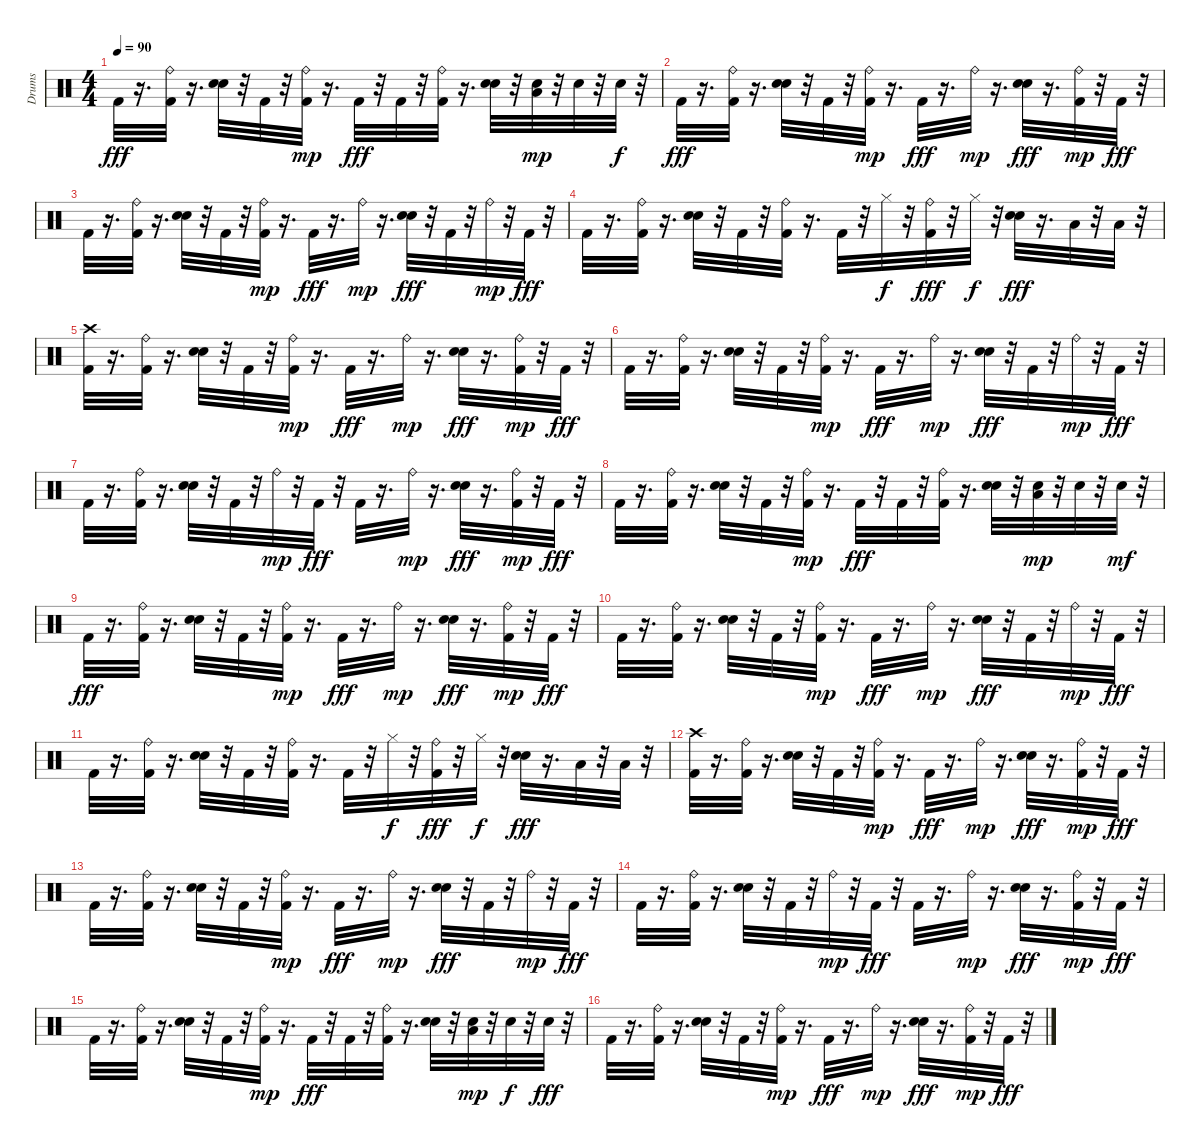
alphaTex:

\track ("Drums" "Drums") {instrument percussion}
\staff {score}
\articulation defaults
\ts (4 4)
\tempo 90
\clef neutral
\ks c "Kick (hit) 2".32{dy fff}
r.16{d} ("Ride (bell)" "Kick (hit) 2").32 r.16{d} ("Hand Clap (hit)" "Electric Snare (hit)").32 r.32 "Kick (hit) 2".32 r.32 ("Ride (bell)" "Kick (hit) 2").32{dy mp} r.16{d} "Kick (hit) 2".32{dy fff} r.32 "Kick (hit) 2".32 r.32 ("Ride (bell)" "Kick (hit) 2").32 r.16{d} ("Hand Clap (hit)" "Electric Snare (hit)").32 r.32 ("Low Tom (hit)" "Electric Snare (hit)").32{dy mp} r.32 "Electric Snare (hit)".32 r.32 "Electric Snare (hit)".32{dy f} r.32 |
"Kick (hit) 2".32{dy fff} r.16{d} ("Ride (bell)" "Kick (hit) 2").32 r.16{d} ("Hand Clap (hit)" "Electric Snare (hit)").32 r.32 "Kick (hit) 2".32 r.32 ("Ride (bell)" "Kick (hit) 2").32{dy mp} r.16{d} "Kick (hit) 2".32{dy fff} r.16{d} "Ride (bell)".32{dy mp} r.16{d} ("Hand Clap (hit)" "Electric Snare (hit)").32{dy fff} r.16{d} ("Ride (bell)" "Kick (hit) 2").32{dy mp} r.32 "Kick (hit) 2".32{dy fff} r.32 |
"Kick (hit) 2".32 r.16{d} ("Ride (bell)" "Kick (hit) 2").32 r.16{d} ("Hand Clap (hit)" "Electric Snare (hit)").32 r.32 "Kick (hit) 2".32 r.32 ("Ride (bell)" "Kick (hit) 2").32{dy mp} r.16{d} "Kick (hit) 2".32{dy fff} r.16{d} "Ride (bell)".32{dy mp} r.16{d} ("Hand Clap (hit)" "Electric Snare (hit)").32{dy fff} r.32 "Kick (hit) 2".32 r.32 "Ride (bell)".32{dy mp} r.32 "Kick (hit) 2".32{dy fff} r.32 |
"Kick (hit) 2".32 r.16{d} ("Ride (bell)" "Kick (hit) 2").32 r.16{d} ("Hand Clap (hit)" "Electric Snare (hit)").32 r.32 "Kick (hit) 2".32 r.32 ("Ride (bell)" "Kick (hit) 2").32 r.16{d} "Kick (hit) 2".32 r.32 "Hi-Hat (closed)".32{dy f} r.32 ("Ride (bell)" "Kick (hit) 2").32{dy fff} r.32 "Hi-Hat (closed)".32{dy f} r.32 ("Hand Clap (hit)" "Electric Snare (hit)").32{dy fff} r.16{d} "Low Tom (hit)".32 r.32 "Low Floor Tom (hit)".32 r.32 |
("Crash high (hit)" "Kick (hit) 2").32 r.16{d} ("Ride (bell)" "Kick (hit) 2").32 r.16{d} ("Hand Clap (hit)" "Electric Snare (hit)").32 r.32 "Kick (hit) 2".32 r.32 ("Ride (bell)" "Kick (hit) 2").32{dy mp} r.16{d} "Kick (hit) 2".32{dy fff} r.16{d} "Ride (bell)".32{dy mp} r.16{d} ("Hand Clap (hit)" "Electric Snare (hit)").32{dy fff} r.16{d} ("Ride (bell)" "Kick (hit) 2").32{dy mp} r.32 "Kick (hit) 2".32{dy fff} r.32 |
"Kick (hit) 2".32 r.16{d} ("Ride (bell)" "Kick (hit) 2").32 r.16{d} ("Hand Clap (hit)" "Electric Snare (hit)").32 r.32 "Kick (hit) 2".32 r.32 ("Ride (bell)" "Kick (hit) 2").32{dy mp} r.16{d} "Kick (hit) 2".32{dy fff} r.16{d} "Ride (bell)".32{dy mp} r.16{d} ("Hand Clap (hit)" "Electric Snare (hit)").32{dy fff} r.32 "Kick (hit) 2".32 r.32 "Ride (bell)".32{dy mp} r.32 "Kick (hit) 2".32{dy fff} r.32 |
"Kick (hit) 2".32 r.16{d} ("Ride (bell)" "Kick (hit) 2").32 r.16{d} ("Hand Clap (hit)" "Electric Snare (hit)").32 r.32 "Kick (hit) 2".32 r.32 "Ride (bell)".32{dy mp} r.32 "Kick (hit) 2".32{dy fff} r.32 "Kick (hit) 2".32 r.16{d} "Ride (bell)".32{dy mp} r.16{d} ("Hand Clap (hit)" "Electric Snare (hit)").32{dy fff} r.16{d} ("Ride (bell)" "Kick (hit) 2").32{dy mp} r.32 "Kick (hit) 2".32{dy fff} r.32 |
"Kick (hit) 2".32 r.16{d} ("Ride (bell)" "Kick (hit) 2").32 r.16{d} ("Hand Clap (hit)" "Electric Snare (hit)").32 r.32 "Kick (hit) 2".32 r.32 ("Ride (bell)" "Kick (hit) 2").32{dy mp} r.16{d} "Kick (hit) 2".32{dy fff} r.32 "Kick (hit) 2".32 r.32 ("Ride (bell)" "Kick (hit) 2").32 r.16{d} ("Hand Clap (hit)" "Electric Snare (hit)").32 r.32 ("Low Tom (hit)" "Electric Snare (hit)").32{dy mp} r.32 "Electric Snare (hit)".32 r.32 "Electric Snare (hit)".32{dy mf} r.32 |
"Kick (hit) 2".32{dy fff} r.16{d} ("Ride (bell)" "Kick (hit) 2").32 r.16{d} ("Hand Clap (hit)" "Electric Snare (hit)").32 r.32 "Kick (hit) 2".32 r.32 ("Ride (bell)" "Kick (hit) 2").32{dy mp} r.16{d} "Kick (hit) 2".32{dy fff} r.16{d} "Ride (bell)".32{dy mp} r.16{d} ("Hand Clap (hit)" "Electric Snare (hit)").32{dy fff} r.16{d} ("Ride (bell)" "Kick (hit) 2").32{dy mp} r.32 "Kick (hit) 2".32{dy fff} r.32 |
"Kick (hit) 2".32 r.16{d} ("Ride (bell)" "Kick (hit) 2").32 r.16{d} ("Hand Clap (hit)" "Electric Snare (hit)").32 r.32 "Kick (hit) 2".32 r.32 ("Ride (bell)" "Kick (hit) 2").32{dy mp} r.16{d} "Kick (hit) 2".32{dy fff} r.16{d} "Ride (bell)".32{dy mp} r.16{d} ("Hand Clap (hit)" "Electric Snare (hit)").32{dy fff} r.32 "Kick (hit) 2".32 r.32 "Ride (bell)".32{dy mp} r.32 "Kick (hit) 2".32{dy fff} r.32 |
"Kick (hit) 2".32 r.16{d} ("Ride (bell)" "Kick (hit) 2").32 r.16{d} ("Hand Clap (hit)" "Electric Snare (hit)").32 r.32 "Kick (hit) 2".32 r.32 ("Ride (bell)" "Kick (hit) 2").32 r.16{d} "Kick (hit) 2".32 r.32 "Hi-Hat (closed)".32{dy f} r.32 ("Ride (bell)" "Kick (hit) 2").32{dy fff} r.32 "Hi-Hat (closed)".32{dy f} r.32 ("Hand Clap (hit)" "Electric Snare (hit)").32{dy fff} r.16{d} "Low Tom (hit)".32 r.32 "Low Floor Tom (hit)".32 r.32 |
("Crash high (hit)" "Kick (hit) 2").32 r.16{d} ("Ride (bell)" "Kick (hit) 2").32 r.16{d} ("Hand Clap (hit)" "Electric Snare (hit)").32 r.32 "Kick (hit) 2".32 r.32 ("Ride (bell)" "Kick (hit) 2").32{dy mp} r.16{d} "Kick (hit) 2".32{dy fff} r.16{d} "Ride (bell)".32{dy mp} r.16{d} ("Hand Clap (hit)" "Electric Snare (hit)").32{dy fff} r.16{d} ("Ride (bell)" "Kick (hit) 2").32{dy mp} r.32 "Kick (hit) 2".32{dy fff} r.32 |
"Kick (hit) 2".32 r.16{d} ("Ride (bell)" "Kick (hit) 2").32 r.16{d} ("Hand Clap (hit)" "Electric Snare (hit)").32 r.32 "Kick (hit) 2".32 r.32 ("Ride (bell)" "Kick (hit) 2").32{dy mp} r.16{d} "Kick (hit) 2".32{dy fff} r.16{d} "Ride (bell)".32{dy mp} r.16{d} ("Hand Clap (hit)" "Electric Snare (hit)").32{dy fff} r.32 "Kick (hit) 2".32 r.32 "Ride (bell)".32{dy mp} r.32 "Kick (hit) 2".32{dy fff} r.32 |
"Kick (hit) 2".32 r.16{d} ("Ride (bell)" "Kick (hit) 2").32 r.16{d} ("Hand Clap (hit)" "Electric Snare (hit)").32 r.32 "Kick (hit) 2".32 r.32 "Ride (bell)".32{dy mp} r.32 "Kick (hit) 2".32{dy fff} r.32 "Kick (hit) 2".32 r.16{d} "Ride (bell)".32{dy mp} r.16{d} ("Hand Clap (hit)" "Electric Snare (hit)").32{dy fff} r.16{d} ("Ride (bell)" "Kick (hit) 2").32{dy mp} r.32 "Kick (hit) 2".32{dy fff} r.32 |
"Kick (hit) 2".32 r.16{d} ("Ride (bell)" "Kick (hit) 2").32 r.16{d} ("Hand Clap (hit)" "Electric Snare (hit)").32 r.32 "Kick (hit) 2".32 r.32 ("Ride (bell)" "Kick (hit) 2").32{dy mp} r.16{d} "Kick (hit) 2".32{dy fff} r.32 "Kick (hit) 2".32 r.32 ("Ride (bell)" "Kick (hit) 2").32 r.16{d} ("Hand Clap (hit)" "Electric Snare (hit)").32 r.32 ("Low Tom (hit)" "Electric Snare (hit)").32{dy mp} r.32 "Electric Snare (hit)".32{dy f} r.32 "Electric Snare (hit)".32{dy fff} r.32 |
"Kick (hit) 2".32 r.16{d} ("Ride (bell)" "Kick (hit) 2").32 r.16{d} ("Hand Clap (hit)" "Electric Snare (hit)").32 r.32 "Kick (hit) 2".32 r.32 ("Ride (bell)" "Kick (hit) 2").32{dy mp} r.16{d} "Kick (hit) 2".32{dy fff} r.16{d} "Ride (bell)".32{dy mp} r.16{d} ("Hand Clap (hit)" "Electric Snare (hit)").32{dy fff} r.16{d} ("Ride (bell)" "Kick (hit) 2").32{dy mp} r.32 "Kick (hit) 2".32{dy fff} r.32
